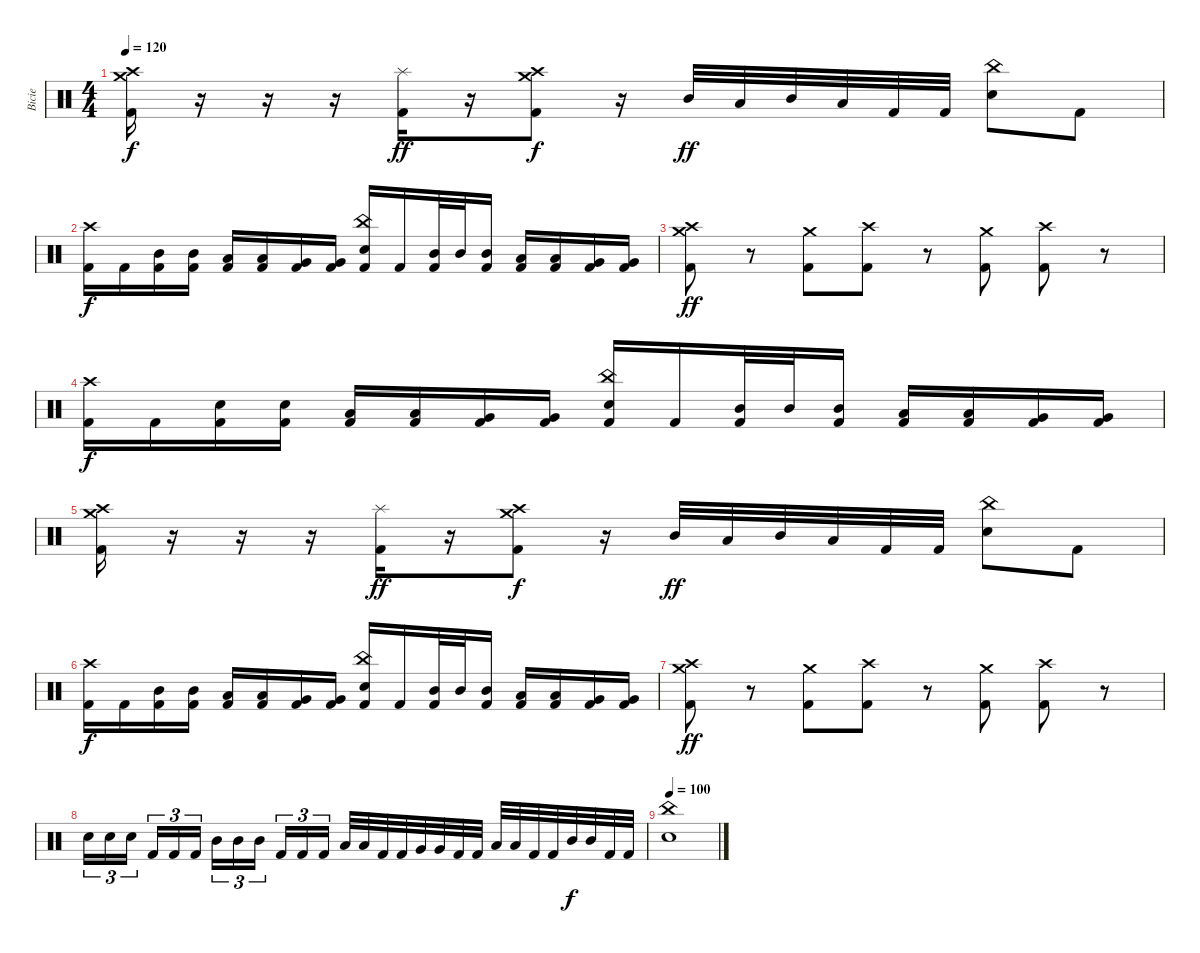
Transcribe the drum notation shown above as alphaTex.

\track ("Bicie" "Bicie") {instrument percussion}
\staff {score}
\articulation defaults
\ts (4 4)
\tempo 120
\clef neutral
\ks c
("Crash medium (hit)" "Crash high (hit)" "Kick (hit) 2").16{dy f} r.16 r.16 r.16 ("Splash (hit)" "Kick (hit) 2").16{dy ff} r.16 ("Crash medium (hit)" "Crash high (hit)" "Kick (hit) 2").8{dy f} r.16 "Mid Tom (hit)".32{dy ff} "Low Tom (hit)".32 "Mid Tom (hit)".32 "Low Tom (hit)".32 "Kick (hit) 2".32 "Kick (hit) 2".32 ("China (hit)" "Snare (hit) 2").8 "Kick (hit) 2".8 |
("Crash high (hit)" "Kick (hit) 2").16{dy f} "Kick (hit) 2".16 ("Mid Tom (hit)" "Kick (hit) 2").16 ("Mid Tom (hit)" "Kick (hit) 2").16 ("Low Tom (hit)" "Kick (hit) 2").16 ("Low Tom (hit)" "Kick (hit) 2").16 ("Very Low Tom (hit)" "Kick (hit) 2").16 ("Very Low Tom (hit)" "Kick (hit) 2").16 ("China (hit)" "Snare (hit) 2" "Kick (hit) 2").16 "Kick (hit) 2".16 ("Mid Tom (hit)" "Kick (hit) 2").32 "Mid Tom (hit)".32 ("Mid Tom (hit)" "Kick (hit) 2").16 ("Low Tom (hit)" "Kick (hit) 2").16 ("Low Tom (hit)" "Kick (hit) 2").16 ("Very Low Tom (hit)" "Kick (hit) 2").16 ("Very Low Tom (hit)" "Kick (hit) 2").16 |
("Crash medium (hit)" "Crash high (hit)" "Kick (hit) 2").8{dy ff} r.8 ("Crash medium (hit)" "Kick (hit) 2").8 ("Crash high (hit)" "Kick (hit) 2").8 r.8 ("Crash medium (hit)" "Kick (hit) 2").8 ("Crash high (hit)" "Kick (hit) 2").8 r.8 |
("Crash high (hit)" "Kick (hit) 2").16{dy f} "Kick (hit) 2".16 ("Snare (hit) 2" "Kick (hit) 2").16 ("Snare (hit) 2" "Kick (hit) 2").16 ("Low Tom (hit)" "Kick (hit) 2").16 ("Low Tom (hit)" "Kick (hit) 2").16 ("Very Low Tom (hit)" "Kick (hit) 2").16 ("Very Low Tom (hit)" "Kick (hit) 2").16 ("China (hit)" "Snare (hit) 2" "Kick (hit) 2").16 "Kick (hit) 2".16 ("Mid Tom (hit)" "Kick (hit) 2").32 "Mid Tom (hit)".32 ("Mid Tom (hit)" "Kick (hit) 2").16 ("Low Tom (hit)" "Kick (hit) 2").16 ("Low Tom (hit)" "Kick (hit) 2").16 ("Very Low Tom (hit)" "Kick (hit) 2").16 ("Very Low Tom (hit)" "Kick (hit) 2").16 |
("Crash medium (hit)" "Crash high (hit)" "Kick (hit) 2").16 r.16 r.16 r.16 ("Splash (hit)" "Kick (hit) 2").16{dy ff} r.16 ("Crash medium (hit)" "Crash high (hit)" "Kick (hit) 2").8{dy f} r.16 "Mid Tom (hit)".32{dy ff} "Low Tom (hit)".32 "Mid Tom (hit)".32 "Low Tom (hit)".32 "Kick (hit) 2".32 "Kick (hit) 2".32 ("China (hit)" "Snare (hit) 2").8 "Kick (hit) 2".8 |
("Crash high (hit)" "Kick (hit) 2").16{dy f} "Kick (hit) 2".16 ("Mid Tom (hit)" "Kick (hit) 2").16 ("Mid Tom (hit)" "Kick (hit) 2").16 ("Low Tom (hit)" "Kick (hit) 2").16 ("Low Tom (hit)" "Kick (hit) 2").16 ("Very Low Tom (hit)" "Kick (hit) 2").16 ("Very Low Tom (hit)" "Kick (hit) 2").16 ("China (hit)" "Snare (hit) 2" "Kick (hit) 2").16 "Kick (hit) 2".16 ("Mid Tom (hit)" "Kick (hit) 2").32 "Mid Tom (hit)".32 ("Mid Tom (hit)" "Kick (hit) 2").16 ("Low Tom (hit)" "Kick (hit) 2").16 ("Low Tom (hit)" "Kick (hit) 2").16 ("Very Low Tom (hit)" "Kick (hit) 2").16 ("Very Low Tom (hit)" "Kick (hit) 2").16 |
("Crash medium (hit)" "Crash high (hit)" "Kick (hit) 2").8{dy ff} r.8 ("Crash medium (hit)" "Kick (hit) 2").8 ("Crash high (hit)" "Kick (hit) 2").8 r.8 ("Crash medium (hit)" "Kick (hit) 2").8 ("Crash high (hit)" "Kick (hit) 2").8 r.8 |
"Snare (hit) 2".16{tu (3 2)} "Snare (hit) 2".16{tu (3 2)} "Snare (hit) 2".16{tu (3 2) beam splitsecondary} "Kick (hit) 2".16{tu (3 2)} "Kick (hit) 2".16{tu (3 2)} "Kick (hit) 2".16{tu (3 2)} "Mid Tom (hit)".16{tu (3 2)} "Mid Tom (hit)".16{tu (3 2)} "Mid Tom (hit)".16{tu (3 2) beam splitsecondary} "Kick (hit) 2".16{tu (3 2)} "Kick (hit) 2".16{tu (3 2)} "Kick (hit) 2".16{tu (3 2)} "Low Tom (hit)".32 "Low Tom (hit)".32 "Kick (hit) 2".32 "Kick (hit) 2".32 "Very Low Tom (hit)".32 "Very Low Tom (hit)".32 "Kick (hit) 2".32 "Kick (hit) 2".32 "Low Tom (hit)".32 "Low Tom (hit)".32 "Kick (hit) 2".32 "Kick (hit) 2".32 "Mid Tom (hit)".32{dy f} "Mid Tom (hit)".32 "Kick (hit) 2".32 "Kick (hit) 2".32 |
\tempo 100
("China (hit)" "Snare (hit) 2").1
